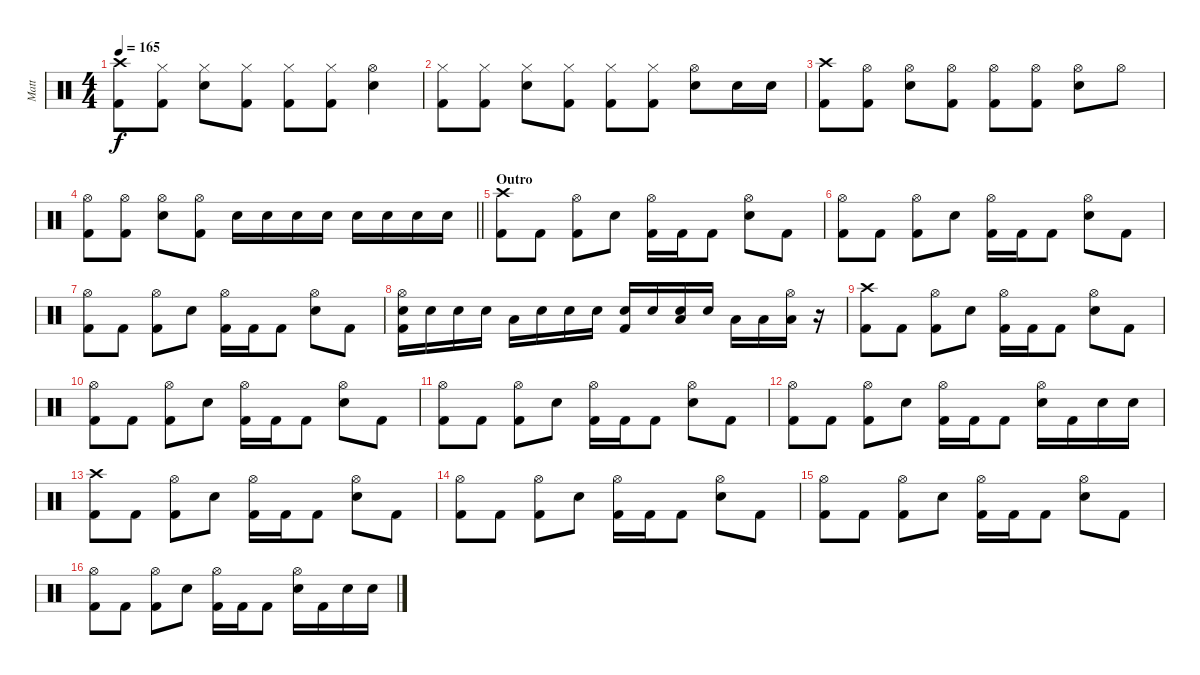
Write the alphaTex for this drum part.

\track ("Matt" "Matt") {instrument percussion}
\staff {score}
\articulation defaults
\ts (4 4)
\tempo 165
\clef neutral
\ks c
("Crash high (hit)" "Kick (hit) 2").8{dy f} ("Hi-Hat (closed)" "Kick (hit) 2").8 ("Hi-Hat (closed)" "Electric Snare (hit)").8 ("Hi-Hat (closed)" "Kick (hit) 2").8 ("Hi-Hat (closed)" "Kick (hit) 2").8 ("Hi-Hat (closed)" "Kick (hit) 2").8 ("Hi-Hat (open)" "Electric Snare (hit)").4 |
("Hi-Hat (closed)" "Kick (hit) 2").8 ("Hi-Hat (closed)" "Kick (hit) 2").8 ("Hi-Hat (closed)" "Electric Snare (hit)").8 ("Hi-Hat (closed)" "Kick (hit) 2").8 ("Hi-Hat (closed)" "Kick (hit) 2").8 ("Hi-Hat (closed)" "Kick (hit) 2").8 ("Hi-Hat (open)" "Electric Snare (hit)").8 "Electric Snare (hit)".16 "Electric Snare (hit)".16 |
("Crash high (hit)" "Kick (hit) 2").8 ("Hi-Hat (open)" "Kick (hit) 2").8 ("Hi-Hat (open)" "Electric Snare (hit)").8 ("Hi-Hat (open)" "Kick (hit) 2").8 ("Hi-Hat (open)" "Kick (hit) 2").8 ("Hi-Hat (open)" "Kick (hit) 2").8 ("Hi-Hat (open)" "Electric Snare (hit)").8 "Hi-Hat (open)".8 |
\barLineRight lightlight
("Hi-Hat (open)" "Kick (hit) 2").8 ("Hi-Hat (open)" "Kick (hit) 2").8 ("Hi-Hat (open)" "Electric Snare (hit)").8 ("Hi-Hat (open)" "Kick (hit) 2").8 "Electric Snare (hit)".16 "Electric Snare (hit)".16 "Electric Snare (hit)".16 "Electric Snare (hit)".16 "Electric Snare (hit)".16 "Electric Snare (hit)".16 "Electric Snare (hit)".16 "Electric Snare (hit)".16 |
\section ("" "Outro")
("Crash high (hit)" "Kick (hit) 2").8 "Kick (hit) 2".8 ("Hi-Hat (open)" "Kick (hit) 2").8 "Electric Snare (hit)".8 ("Hi-Hat (open)" "Kick (hit) 2").16 "Kick (hit) 2".16 "Kick (hit) 2".8 ("Hi-Hat (open)" "Electric Snare (hit)").8 "Kick (hit) 2".8 |
("Hi-Hat (open)" "Kick (hit) 2").8 "Kick (hit) 2".8 ("Hi-Hat (open)" "Kick (hit) 2").8 "Electric Snare (hit)".8 ("Hi-Hat (open)" "Kick (hit) 2").16 "Kick (hit) 2".16 "Kick (hit) 2".8 ("Hi-Hat (open)" "Electric Snare (hit)").8 "Kick (hit) 2".8 |
("Hi-Hat (open)" "Kick (hit) 2").8 "Kick (hit) 2".8 ("Hi-Hat (open)" "Kick (hit) 2").8 "Electric Snare (hit)".8 ("Hi-Hat (open)" "Kick (hit) 2").16 "Kick (hit) 2".16 "Kick (hit) 2".8 ("Hi-Hat (open)" "Electric Snare (hit)").8 "Kick (hit) 2".8 |
("Hi-Hat (open)" "Electric Snare (hit)" "Kick (hit) 2").16 "Electric Snare (hit)".16 "Electric Snare (hit)".16 "Electric Snare (hit)".16 "Low Tom (hit)".16 "Electric Snare (hit)".16 "Electric Snare (hit)".16 "Electric Snare (hit)".16 ("Electric Snare (hit)" "Kick (hit) 2").16 "Electric Snare (hit)".16 ("Low Tom (hit)" "Electric Snare (hit)").16 "Electric Snare (hit)".16 "Low Tom (hit)".16 "Low Tom (hit)".16 ("Hi-Hat (open)" "Low Tom (hit)").16 r.16 |
("Crash high (hit)" "Kick (hit) 2").8 "Kick (hit) 2".8 ("Hi-Hat (open)" "Kick (hit) 2").8 "Electric Snare (hit)".8 ("Hi-Hat (open)" "Kick (hit) 2").16 "Kick (hit) 2".16 "Kick (hit) 2".8 ("Hi-Hat (open)" "Electric Snare (hit)").8 "Kick (hit) 2".8 |
("Hi-Hat (open)" "Kick (hit) 2").8 "Kick (hit) 2".8 ("Hi-Hat (open)" "Kick (hit) 2").8 "Electric Snare (hit)".8 ("Hi-Hat (open)" "Kick (hit) 2").16 "Kick (hit) 2".16 "Kick (hit) 2".8 ("Hi-Hat (open)" "Electric Snare (hit)").8 "Kick (hit) 2".8 |
("Hi-Hat (open)" "Kick (hit) 2").8 "Kick (hit) 2".8 ("Hi-Hat (open)" "Kick (hit) 2").8 "Electric Snare (hit)".8 ("Hi-Hat (open)" "Kick (hit) 2").16 "Kick (hit) 2".16 "Kick (hit) 2".8 ("Hi-Hat (open)" "Electric Snare (hit)").8 "Kick (hit) 2".8 |
("Hi-Hat (open)" "Kick (hit) 2").8 "Kick (hit) 2".8 ("Hi-Hat (open)" "Kick (hit) 2").8 "Electric Snare (hit)".8 ("Hi-Hat (open)" "Kick (hit) 2").16 "Kick (hit) 2".16 "Kick (hit) 2".8 ("Hi-Hat (open)" "Electric Snare (hit)").16 "Kick (hit) 2".16 "Electric Snare (hit)".16 "Electric Snare (hit)".16 |
("Crash high (hit)" "Kick (hit) 2").8 "Kick (hit) 2".8 ("Hi-Hat (open)" "Kick (hit) 2").8 "Electric Snare (hit)".8 ("Hi-Hat (open)" "Kick (hit) 2").16 "Kick (hit) 2".16 "Kick (hit) 2".8 ("Hi-Hat (open)" "Electric Snare (hit)").8 "Kick (hit) 2".8 |
("Hi-Hat (open)" "Kick (hit) 2").8 "Kick (hit) 2".8 ("Hi-Hat (open)" "Kick (hit) 2").8 "Electric Snare (hit)".8 ("Hi-Hat (open)" "Kick (hit) 2").16 "Kick (hit) 2".16 "Kick (hit) 2".8 ("Hi-Hat (open)" "Electric Snare (hit)").8 "Kick (hit) 2".8 |
("Hi-Hat (open)" "Kick (hit) 2").8 "Kick (hit) 2".8 ("Hi-Hat (open)" "Kick (hit) 2").8 "Electric Snare (hit)".8 ("Hi-Hat (open)" "Kick (hit) 2").16 "Kick (hit) 2".16 "Kick (hit) 2".8 ("Hi-Hat (open)" "Electric Snare (hit)").8 "Kick (hit) 2".8 |
("Hi-Hat (open)" "Kick (hit) 2").8 "Kick (hit) 2".8 ("Hi-Hat (open)" "Kick (hit) 2").8 "Electric Snare (hit)".8 ("Hi-Hat (open)" "Kick (hit) 2").16 "Kick (hit) 2".16 "Kick (hit) 2".8 ("Hi-Hat (open)" "Electric Snare (hit)").16 "Kick (hit) 2".16 "Electric Snare (hit)".16 "Electric Snare (hit)".16
